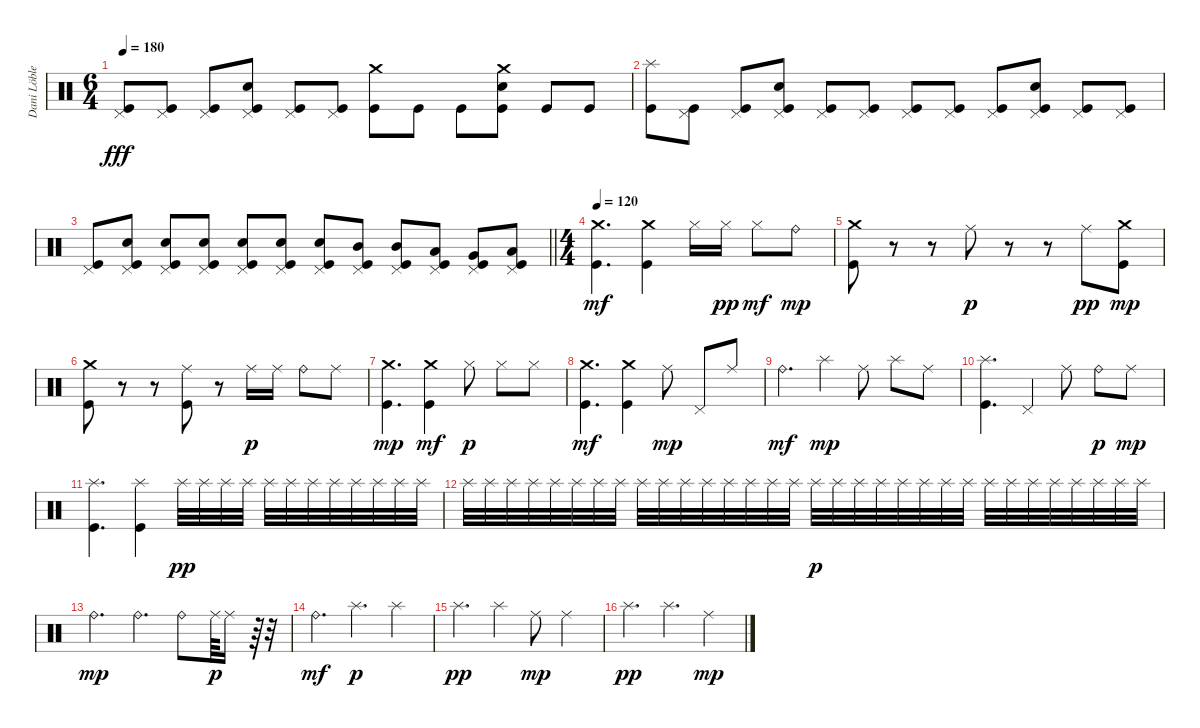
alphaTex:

\track ("Dani Löble" "Dani Löble") {instrument percussion}
\staff {score}
\articulation defaults
\ts (6 4)
\tempo 180
\clef neutral
\ks c
("Pedal Hi-Hat (hit)" "Kick (hit)").8{dy fff} ("Pedal Hi-Hat (hit)" "Kick (hit)").8 ("Pedal Hi-Hat (hit)" "Kick (hit)").8 ("Pedal Hi-Hat (hit)" "Electric Snare (hit)" "Kick (hit)").8 ("Pedal Hi-Hat (hit)" "Kick (hit)").8 ("Pedal Hi-Hat (hit)" "Kick (hit)").8 ("Crash medium (hit)" "Kick (hit)").8 "Kick (hit)".8 "Kick (hit)".8 ("Crash medium (hit)" "Electric Snare (hit)" "Kick (hit)").8 "Kick (hit)".8 "Kick (hit)".8 |
("Splash (hit)" "Kick (hit)").8 ("Pedal Hi-Hat (hit)" "Kick (hit)").8 ("Pedal Hi-Hat (hit)" "Kick (hit)").8 ("Pedal Hi-Hat (hit)" "Electric Snare (hit)" "Kick (hit)").8 ("Pedal Hi-Hat (hit)" "Kick (hit)").8 ("Pedal Hi-Hat (hit)" "Kick (hit)").8 ("Pedal Hi-Hat (hit)" "Kick (hit)").8 ("Pedal Hi-Hat (hit)" "Kick (hit)").8 ("Pedal Hi-Hat (hit)" "Kick (hit)").8 ("Pedal Hi-Hat (hit)" "Electric Snare (hit)" "Kick (hit)").8 ("Pedal Hi-Hat (hit)" "Kick (hit)").8 ("Pedal Hi-Hat (hit)" "Kick (hit)").8 |
\barLineRight lightlight
("Pedal Hi-Hat (hit)" "Kick (hit)").8 ("Pedal Hi-Hat (hit)" "Electric Snare (hit)" "Kick (hit)").8 ("Pedal Hi-Hat (hit)" "Electric Snare (hit)" "Kick (hit)").8 ("Pedal Hi-Hat (hit)" "Electric Snare (hit)" "Kick (hit)").8 ("Pedal Hi-Hat (hit)" "Electric Snare (hit)" "Kick (hit)").8 ("Pedal Hi-Hat (hit)" "Electric Snare (hit)" "Kick (hit)").8 ("Pedal Hi-Hat (hit)" "Electric Snare (hit)" "Kick (hit)").8 ("Pedal Hi-Hat (hit)" "Mid Tom (hit)" "Kick (hit)").8 ("Pedal Hi-Hat (hit)" "Mid Tom (hit)" "Kick (hit)").8 ("Pedal Hi-Hat (hit)" "Low Tom (hit)" "Kick (hit)").8 ("Pedal Hi-Hat (hit)" "Very Low Tom (hit)" "Kick (hit)").8 ("Pedal Hi-Hat (hit)" "Low Floor Tom (hit)" "Kick (hit)").8 |
\ts (4 4)
\section ("" "")
\tempo 120
("Crash medium (hit)" "Kick (hit)").4{d dy mf} ("Crash medium (hit)" "Kick (hit)").4 "Hi-Hat (closed)".16 "Hi-Hat (closed)".16{dy pp} "Hi-Hat (closed)".8{dy mf} "Ride (bell)".8{dy mp} |
("Crash medium (hit)" "Kick (hit)").8 r.8 r.8 "Ride (middle)".8{dy p} r.8 r.8 "Ride (middle)".8{dy pp} ("Crash medium (hit)" "Kick (hit)").8{dy mp} |
("Crash medium (hit)" "Kick (hit)").8 r.8 r.8 ("Ride (middle)" "Kick (hit)").8 r.8 "Ride (middle)".16{dy p} "Ride (middle)".16 "Ride (bell)".8 "Ride (middle)".8 |
("Crash medium (hit)" "Kick (hit)").4{d dy mp} ("Crash medium (hit)" "Kick (hit)").4{dy mf} "Hi-Hat (closed)".8{dy p} "Hi-Hat (closed)".8 "Hi-Hat (closed)".8 |
("Crash medium (hit)" "Kick (hit)").4{d dy mf} ("Crash medium (hit)" "Kick (hit)").4 "Ride (middle)".8{dy mp} "Pedal Hi-Hat (hit)".8 "Ride (middle)".8 |
"Ride (bell)".4{d dy mf} "Splash (hit)".4{dy mp} "Ride (middle)".8 "Splash (hit)".8 "Ride (middle)".8 |
("Splash (hit)" "Kick (hit)").4{d} "Pedal Hi-Hat (hit)".4 "Ride (middle)".8 "Ride (bell)".8{dy p} "Ride (middle)".8{dy mp} |
("Splash (hit)" "Kick (hit)").4{d} ("Splash (hit)" "Kick (hit)").4 "Splash (hit)".32{dy pp} "Splash (hit)".32 "Splash (hit)".32 "Splash (hit)".32 "Splash (hit)".32 "Splash (hit)".32 "Splash (hit)".32 "Splash (hit)".32 "Splash (hit)".32 "Splash (hit)".32 "Splash (hit)".32 "Splash (hit)".32 |
"Splash (hit)".32 "Splash (hit)".32 "Splash (hit)".32 "Splash (hit)".32 "Splash (hit)".32 "Splash (hit)".32 "Splash (hit)".32 "Splash (hit)".32 "Splash (hit)".32 "Splash (hit)".32 "Splash (hit)".32 "Splash (hit)".32 "Splash (hit)".32 "Splash (hit)".32 "Splash (hit)".32 "Splash (hit)".32 "Splash (hit)".32{dy p} "Splash (hit)".32 "Splash (hit)".32 "Splash (hit)".32 "Splash (hit)".32 "Splash (hit)".32 "Splash (hit)".32 "Splash (hit)".32 "Splash (hit)".32 "Splash (hit)".32 "Splash (hit)".32 "Splash (hit)".32 "Splash (hit)".32 "Splash (hit)".32 "Splash (hit)".32 "Splash (hit)".32 |
"Ride (bell)".4{d dy mp} "Ride (bell)".4{d} "Ride (bell)".8 "Ride (middle)".64{dy p} "Ride (middle)".16 r.64 r.32 |
"Ride (bell)".4{d dy mf} "Splash (hit)".4{d dy p} "Splash (hit)".4 |
"Splash (hit)".4{d dy pp} "Splash (hit)".4 "Ride (middle)".8{dy mp} "Ride (middle)".4 |
"Splash (hit)".4{d dy pp} "Splash (hit)".4{d} "Ride (middle)".4{dy mp}
